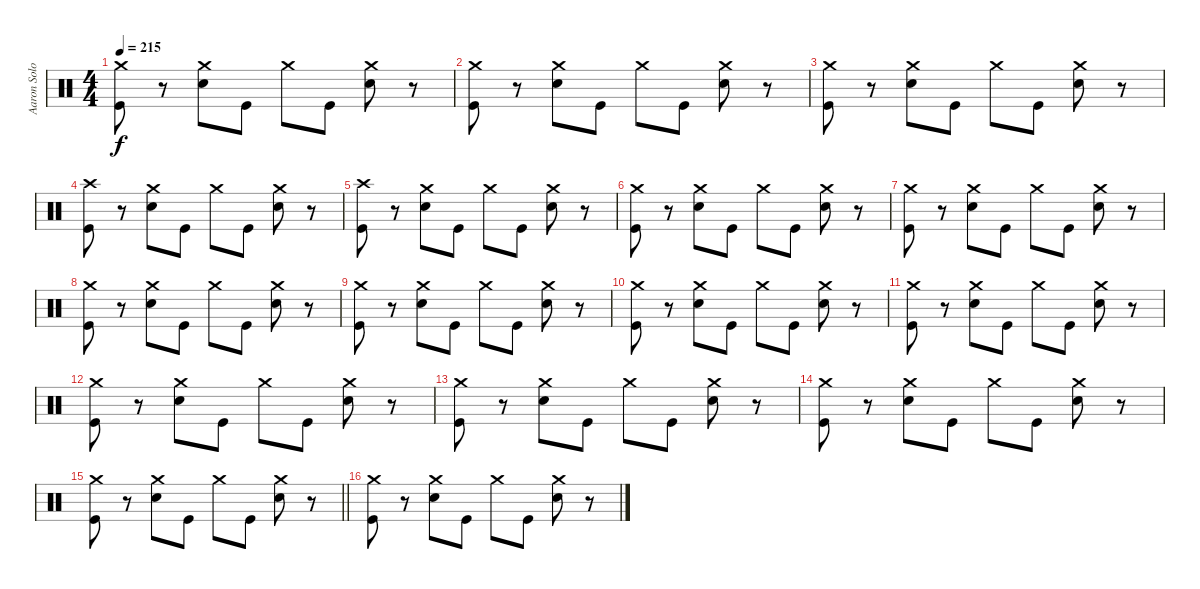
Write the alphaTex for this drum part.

\track ("Aaron Solowoniuk" "Aaron Solo") {instrument percussion}
\staff {score}
\articulation defaults
\ts (4 4)
\tempo 215
\clef neutral
\ks c
("Crash medium (hit)" "Kick (hit)").8{dy f} r.8 ("Crash medium (hit)" "Electric Snare (hit)").8 "Kick (hit)".8 "Crash medium (hit)".8 "Kick (hit)".8 ("Crash medium (hit)" "Electric Snare (hit)").8 r.8 |
("Crash medium (hit)" "Kick (hit)").8 r.8 ("Crash medium (hit)" "Electric Snare (hit)").8 "Kick (hit)".8 "Crash medium (hit)".8 "Kick (hit)".8 ("Crash medium (hit)" "Electric Snare (hit)").8 r.8 |
("Crash medium (hit)" "Kick (hit)").8 r.8 ("Crash medium (hit)" "Electric Snare (hit)").8 "Kick (hit)".8 "Crash medium (hit)".8 "Kick (hit)".8 ("Crash medium (hit)" "Electric Snare (hit)").8 r.8 |
("Crash high (hit)" "Kick (hit)").8 r.8 ("Crash medium (hit)" "Electric Snare (hit)").8 "Kick (hit)".8 "Crash medium (hit)".8 "Kick (hit)".8 ("Crash medium (hit)" "Electric Snare (hit)").8 r.8 |
("Crash high (hit)" "Kick (hit)").8 r.8 ("Crash medium (hit)" "Electric Snare (hit)").8 "Kick (hit)".8 "Crash medium (hit)".8 "Kick (hit)".8 ("Crash medium (hit)" "Electric Snare (hit)").8 r.8 |
("Crash medium (hit)" "Kick (hit)").8 r.8 ("Crash medium (hit)" "Electric Snare (hit)").8 "Kick (hit)".8 "Crash medium (hit)".8 "Kick (hit)".8 ("Crash medium (hit)" "Electric Snare (hit)").8 r.8 |
("Crash medium (hit)" "Kick (hit)").8 r.8 ("Crash medium (hit)" "Electric Snare (hit)").8 "Kick (hit)".8 "Crash medium (hit)".8 "Kick (hit)".8 ("Crash medium (hit)" "Electric Snare (hit)").8 r.8 |
("Crash medium (hit)" "Kick (hit)").8 r.8 ("Crash medium (hit)" "Electric Snare (hit)").8 "Kick (hit)".8 "Crash medium (hit)".8 "Kick (hit)".8 ("Crash medium (hit)" "Electric Snare (hit)").8 r.8 |
("Crash medium (hit)" "Kick (hit)").8 r.8 ("Crash medium (hit)" "Electric Snare (hit)").8 "Kick (hit)".8 "Crash medium (hit)".8 "Kick (hit)".8 ("Crash medium (hit)" "Electric Snare (hit)").8 r.8 |
("Crash medium (hit)" "Kick (hit)").8 r.8 ("Crash medium (hit)" "Electric Snare (hit)").8 "Kick (hit)".8 "Crash medium (hit)".8 "Kick (hit)".8 ("Crash medium (hit)" "Electric Snare (hit)").8 r.8 |
("Crash medium (hit)" "Kick (hit)").8 r.8 ("Crash medium (hit)" "Electric Snare (hit)").8 "Kick (hit)".8 "Crash medium (hit)".8 "Kick (hit)".8 ("Crash medium (hit)" "Electric Snare (hit)").8 r.8 |
("Crash medium (hit)" "Kick (hit)").8 r.8 ("Crash medium (hit)" "Electric Snare (hit)").8 "Kick (hit)".8 "Crash medium (hit)".8 "Kick (hit)".8 ("Crash medium (hit)" "Electric Snare (hit)").8 r.8 |
("Crash medium (hit)" "Kick (hit)").8 r.8 ("Crash medium (hit)" "Electric Snare (hit)").8 "Kick (hit)".8 "Crash medium (hit)".8 "Kick (hit)".8 ("Crash medium (hit)" "Electric Snare (hit)").8 r.8 |
("Crash medium (hit)" "Kick (hit)").8 r.8 ("Crash medium (hit)" "Electric Snare (hit)").8 "Kick (hit)".8 "Crash medium (hit)".8 "Kick (hit)".8 ("Crash medium (hit)" "Electric Snare (hit)").8 r.8 |
\barLineRight lightlight
("Crash medium (hit)" "Kick (hit)").8 r.8 ("Crash medium (hit)" "Electric Snare (hit)").8 "Kick (hit)".8 "Crash medium (hit)".8 "Kick (hit)".8 ("Crash medium (hit)" "Electric Snare (hit)").8 r.8 |
("Crash medium (hit)" "Kick (hit)").8 r.8 ("Crash medium (hit)" "Electric Snare (hit)").8 "Kick (hit)".8 "Crash medium (hit)".8 "Kick (hit)".8 ("Crash medium (hit)" "Electric Snare (hit)").8 r.8
